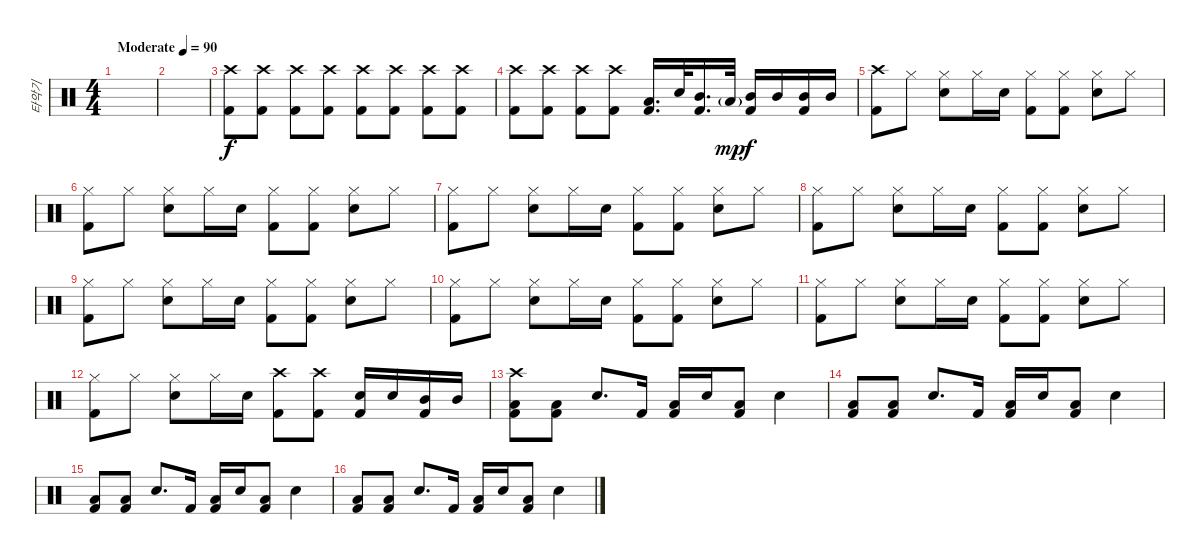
\track ("타악기" "타악기") {instrument percussion}
\staff {score}
\articulation defaults
\ts (4 4)
\tempo (90 "Moderate")
\clef neutral
\ks c
|
|
("Crash high (hit)" "Kick (hit) 2").8 ("Crash high (hit)" "Kick (hit) 2").8 ("Crash high (hit)" "Kick (hit) 2").8 ("Crash high (hit)" "Kick (hit) 2").8 ("Crash high (hit)" "Kick (hit) 2").8 ("Crash high (hit)" "Kick (hit) 2").8 ("Crash high (hit)" "Kick (hit) 2").8 ("Crash high (hit)" "Kick (hit) 2").8 |
("Crash high (hit)" "Kick (hit) 2").8 ("Crash high (hit)" "Kick (hit) 2").8 ("Crash high (hit)" "Kick (hit) 2").8 ("Crash high (hit)" "Kick (hit) 2").8 ("Low Floor Tom (hit)" "Kick (hit) 2").16{d dy f} "Electric Snare (hit)".32 ("Mid Tom (hit)" "Kick (hit) 2").16{d} "Low Floor Tom (hit)"{g}.32{dy mp} ("Mid Tom (hit)" "Kick (hit) 2").16{dy f} "Mid Tom (hit)".16 ("Mid Tom (hit)" "Kick (hit) 2").16 "Mid Tom (hit)".16 |
("Crash high (hit)" "Kick (hit) 2").8 "Hi-Hat (closed)".8 ("Hi-Hat (closed)" "Electric Snare (hit)").8 "Hi-Hat (closed)".16 "Electric Snare (hit)".16 ("Hi-Hat (closed)" "Kick (hit) 2").8 ("Hi-Hat (closed)" "Kick (hit) 2").8 ("Hi-Hat (closed)" "Electric Snare (hit)").8 "Hi-Hat (closed)".8 |
("Kick (hit) 2" "Hi-Hat (closed)").8 "Hi-Hat (closed)".8 ("Hi-Hat (closed)" "Electric Snare (hit)").8 "Hi-Hat (closed)".16 "Electric Snare (hit)".16 ("Hi-Hat (closed)" "Kick (hit) 2").8 ("Hi-Hat (closed)" "Kick (hit) 2").8 ("Hi-Hat (closed)" "Electric Snare (hit)").8 "Hi-Hat (closed)".8 |
("Hi-Hat (closed)" "Kick (hit) 2").8 "Hi-Hat (closed)".8 ("Hi-Hat (closed)" "Electric Snare (hit)").8 "Hi-Hat (closed)".16 "Electric Snare (hit)".16 ("Hi-Hat (closed)" "Kick (hit) 2").8 ("Hi-Hat (closed)" "Kick (hit) 2").8 ("Hi-Hat (closed)" "Electric Snare (hit)").8 "Hi-Hat (closed)".8 |
("Hi-Hat (closed)" "Kick (hit) 2").8 "Hi-Hat (closed)".8 ("Hi-Hat (closed)" "Electric Snare (hit)").8 "Hi-Hat (closed)".16 "Electric Snare (hit)".16 ("Hi-Hat (closed)" "Kick (hit) 2").8 ("Hi-Hat (closed)" "Kick (hit) 2").8 ("Hi-Hat (closed)" "Electric Snare (hit)").8 "Hi-Hat (closed)".8 |
("Hi-Hat (closed)" "Kick (hit) 2").8 "Hi-Hat (closed)".8 ("Hi-Hat (closed)" "Electric Snare (hit)").8 "Hi-Hat (closed)".16 "Electric Snare (hit)".16 ("Hi-Hat (closed)" "Kick (hit) 2").8 ("Hi-Hat (closed)" "Kick (hit) 2").8 ("Hi-Hat (closed)" "Electric Snare (hit)").8 "Hi-Hat (closed)".8 |
("Hi-Hat (closed)" "Kick (hit) 2").8 "Hi-Hat (closed)".8 ("Hi-Hat (closed)" "Electric Snare (hit)").8 "Hi-Hat (closed)".16 "Electric Snare (hit)".16 ("Hi-Hat (closed)" "Kick (hit) 2").8 ("Hi-Hat (closed)" "Kick (hit) 2").8 ("Hi-Hat (closed)" "Electric Snare (hit)").8 "Hi-Hat (closed)".8 |
("Hi-Hat (closed)" "Kick (hit) 2").8 "Hi-Hat (closed)".8 ("Hi-Hat (closed)" "Electric Snare (hit)").8 "Hi-Hat (closed)".16 "Electric Snare (hit)".16 ("Hi-Hat (closed)" "Kick (hit) 2").8 ("Hi-Hat (closed)" "Kick (hit) 2").8 ("Hi-Hat (closed)" "Electric Snare (hit)").8 "Hi-Hat (closed)".8 |
("Hi-Hat (closed)" "Kick (hit) 2").8 "Hi-Hat (closed)".8 ("Hi-Hat (closed)" "Electric Snare (hit)").8 "Hi-Hat (closed)".16 "Electric Snare (hit)".16 ("Crash high (hit)" "Kick (hit) 2").8 ("Crash high (hit)" "Kick (hit) 2").8 ("Electric Snare (hit)" "Kick (hit) 2").16 "Electric Snare (hit)".16 ("Mid Tom (hit)" "Kick (hit) 2").16 "Mid Tom (hit)".16 |
("Crash high (hit)" "Kick (hit) 2" "Low Floor Tom (hit)").8 ("Kick (hit) 2" "Low Floor Tom (hit)").8 "Electric Snare (hit)".8{d} "Kick (hit) 2".16 ("Kick (hit) 2" "Low Floor Tom (hit)").16 "Electric Snare (hit)".16 ("Kick (hit) 2" "Low Floor Tom (hit)").8 "Electric Snare (hit)".4 |
("Kick (hit) 2" "Low Floor Tom (hit)").8 ("Kick (hit) 2" "Low Floor Tom (hit)").8 "Electric Snare (hit)".8{d} "Kick (hit) 2".16 ("Kick (hit) 2" "Low Floor Tom (hit)").16 "Electric Snare (hit)".16 ("Kick (hit) 2" "Low Floor Tom (hit)").8 "Electric Snare (hit)".4 |
("Kick (hit) 2" "Low Floor Tom (hit)").8 ("Kick (hit) 2" "Low Floor Tom (hit)").8 "Electric Snare (hit)".8{d} "Kick (hit) 2".16 ("Kick (hit) 2" "Low Floor Tom (hit)").16 "Electric Snare (hit)".16 ("Kick (hit) 2" "Low Floor Tom (hit)").8 "Electric Snare (hit)".4 |
("Kick (hit) 2" "Low Floor Tom (hit)").8 ("Kick (hit) 2" "Low Floor Tom (hit)").8 "Electric Snare (hit)".8{d} "Kick (hit) 2".16 ("Kick (hit) 2" "Low Floor Tom (hit)").16 "Electric Snare (hit)".16 ("Kick (hit) 2" "Low Floor Tom (hit)").8 "Electric Snare (hit)".4
